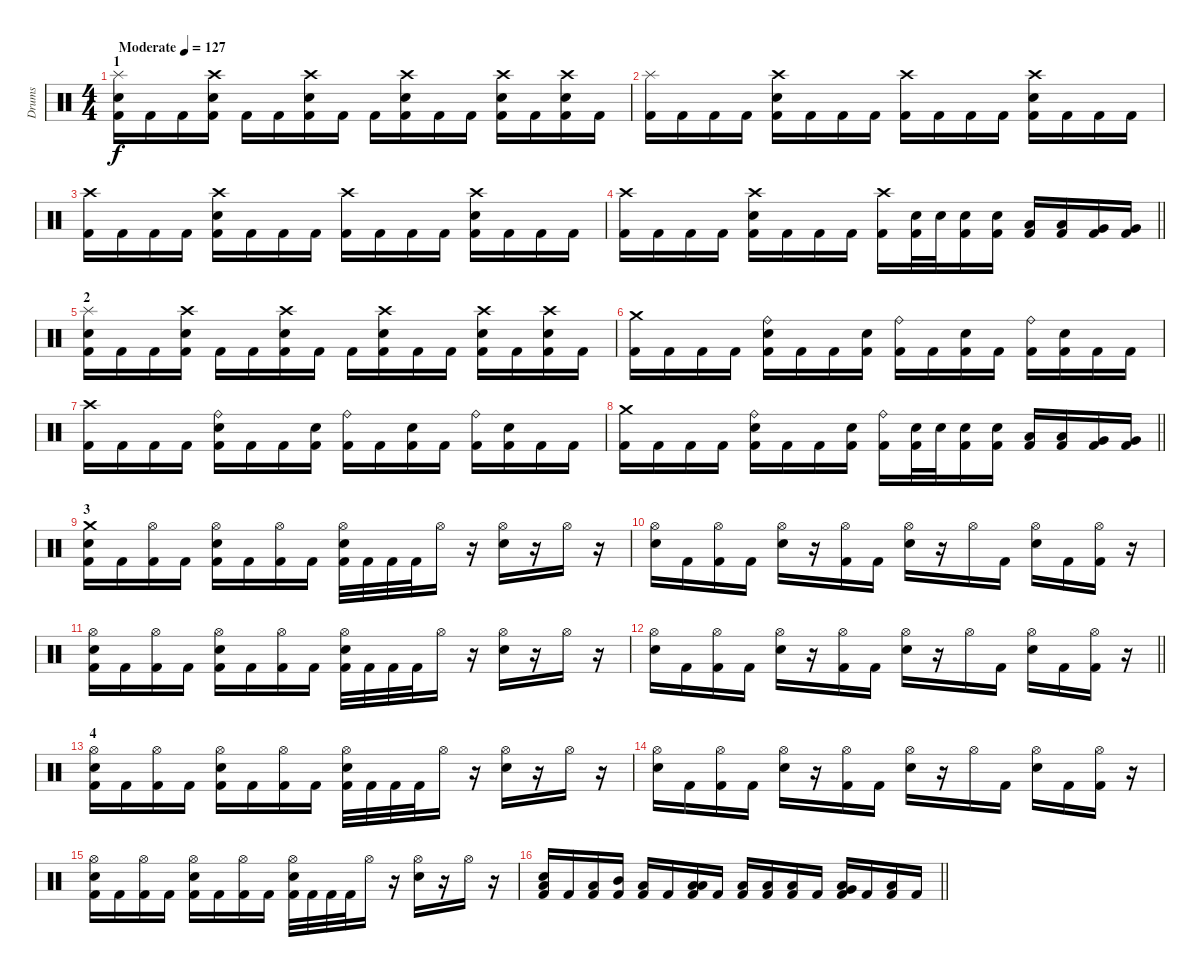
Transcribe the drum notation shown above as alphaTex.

\track ("Drums" "Drums") {instrument percussion}
\staff {score}
\articulation defaults
\ts (4 4)
\section ("" "1")
\tempo (127 "Moderate")
\clef neutral
\ks c
("Splash (hit)" "Electric Snare (hit)" "Kick (hit) 2").16{dy f} "Kick (hit) 2".16 "Kick (hit) 2".16 ("Crash high (hit)" "Electric Snare (hit)" "Kick (hit) 2").16 "Kick (hit) 2".16 "Kick (hit) 2".16 ("Crash high (hit)" "Electric Snare (hit)" "Kick (hit) 2").16 "Kick (hit) 2".16 "Kick (hit) 2".16 ("Crash high (hit)" "Electric Snare (hit)" "Kick (hit) 2").16 "Kick (hit) 2".16 "Kick (hit) 2".16 ("Crash high (hit)" "Electric Snare (hit)" "Kick (hit) 2").16 "Kick (hit) 2".16 ("Crash high (hit)" "Electric Snare (hit)" "Kick (hit) 2").16 "Kick (hit) 2".16 |
("Splash (hit)" "Kick (hit) 2").16 "Kick (hit) 2".16 "Kick (hit) 2".16 "Kick (hit) 2".16 ("Crash high (hit)" "Electric Snare (hit)" "Kick (hit) 2").16 "Kick (hit) 2".16 "Kick (hit) 2".16 "Kick (hit) 2".16 ("Crash high (hit)" "Kick (hit) 2").16 "Kick (hit) 2".16 "Kick (hit) 2".16 "Kick (hit) 2".16 ("Crash high (hit)" "Electric Snare (hit)" "Kick (hit) 2").16 "Kick (hit) 2".16 "Kick (hit) 2".16 "Kick (hit) 2".16 |
("Crash high (hit)" "Kick (hit) 2").16 "Kick (hit) 2".16 "Kick (hit) 2".16 "Kick (hit) 2".16 ("Crash high (hit)" "Electric Snare (hit)" "Kick (hit) 2").16 "Kick (hit) 2".16 "Kick (hit) 2".16 "Kick (hit) 2".16 ("Crash high (hit)" "Kick (hit) 2").16 "Kick (hit) 2".16 "Kick (hit) 2".16 "Kick (hit) 2".16 ("Crash high (hit)" "Electric Snare (hit)" "Kick (hit) 2").16 "Kick (hit) 2".16 "Kick (hit) 2".16 "Kick (hit) 2".16 |
\barLineRight lightlight
("Crash high (hit)" "Kick (hit) 2").16 "Kick (hit) 2".16 "Kick (hit) 2".16 "Kick (hit) 2".16 ("Crash high (hit)" "Electric Snare (hit)" "Kick (hit) 2").16 "Kick (hit) 2".16 "Kick (hit) 2".16 "Kick (hit) 2".16 ("Crash high (hit)" "Kick (hit) 2").16 ("Electric Snare (hit)" "Kick (hit) 2").32 "Electric Snare (hit)".32 ("Electric Snare (hit)" "Kick (hit) 2").16 ("Electric Snare (hit)" "Kick (hit) 2").16 ("Low Tom (hit)" "Kick (hit) 2").16 ("Low Tom (hit)" "Kick (hit) 2").16 ("Very Low Tom (hit)" "Kick (hit) 2").16 ("Very Low Tom (hit)" "Kick (hit) 2").16 |
\section ("" "2")
("Splash (hit)" "Electric Snare (hit)" "Kick (hit) 2").16 "Kick (hit) 2".16 "Kick (hit) 2".16 ("Crash high (hit)" "Electric Snare (hit)" "Kick (hit) 2").16 "Kick (hit) 2".16 "Kick (hit) 2".16 ("Crash high (hit)" "Electric Snare (hit)" "Kick (hit) 2").16 "Kick (hit) 2".16 "Kick (hit) 2".16 ("Crash high (hit)" "Electric Snare (hit)" "Kick (hit) 2").16 "Kick (hit) 2".16 "Kick (hit) 2".16 ("Crash high (hit)" "Electric Snare (hit)" "Kick (hit) 2").16 "Kick (hit) 2".16 ("Crash high (hit)" "Electric Snare (hit)" "Kick (hit) 2").16 "Kick (hit) 2".16 |
("Crash medium (hit)" "Kick (hit) 2").16 "Kick (hit) 2".16 "Kick (hit) 2".16 "Kick (hit) 2".16 ("Ride (bell)" "Electric Snare (hit)" "Kick (hit) 2").16 "Kick (hit) 2".16 "Kick (hit) 2".16 ("Electric Snare (hit)" "Kick (hit) 2").16 ("Ride (bell)" "Kick (hit) 2").16 "Kick (hit) 2".16 ("Electric Snare (hit)" "Kick (hit) 2").16 "Kick (hit) 2".16 ("Ride (bell)" "Kick (hit) 2").16 ("Electric Snare (hit)" "Kick (hit) 2").16 "Kick (hit) 2".16 "Kick (hit) 2".16 |
("Crash high (hit)" "Kick (hit) 2").16 "Kick (hit) 2".16 "Kick (hit) 2".16 "Kick (hit) 2".16 ("Ride (bell)" "Electric Snare (hit)" "Kick (hit) 2").16 "Kick (hit) 2".16 "Kick (hit) 2".16 ("Electric Snare (hit)" "Kick (hit) 2").16 ("Ride (bell)" "Kick (hit) 2").16 "Kick (hit) 2".16 ("Electric Snare (hit)" "Kick (hit) 2").16 "Kick (hit) 2".16 ("Ride (bell)" "Kick (hit) 2").16 ("Electric Snare (hit)" "Kick (hit) 2").16 "Kick (hit) 2".16 "Kick (hit) 2".16 |
\barLineRight lightlight
("Crash medium (hit)" "Kick (hit) 2").16 "Kick (hit) 2".16 "Kick (hit) 2".16 "Kick (hit) 2".16 ("Ride (bell)" "Electric Snare (hit)" "Kick (hit) 2").16 "Kick (hit) 2".16 "Kick (hit) 2".16 ("Electric Snare (hit)" "Kick (hit) 2").16 ("Ride (bell)" "Kick (hit) 2").16 ("Electric Snare (hit)" "Kick (hit) 2").32 "Electric Snare (hit)".32 ("Electric Snare (hit)" "Kick (hit) 2").16 ("Electric Snare (hit)" "Kick (hit) 2").16 ("Low Tom (hit)" "Kick (hit) 2").16 ("Low Tom (hit)" "Kick (hit) 2").16 ("Very Low Tom (hit)" "Kick (hit) 2").16 ("Very Low Tom (hit)" "Kick (hit) 2").16 |
\section ("" "3")
("Crash medium (hit)" "Electric Snare (hit)" "Kick (hit) 2").16 "Kick (hit) 2".16 ("Hi-Hat (open)" "Kick (hit) 2").16 "Kick (hit) 2".16 ("Hi-Hat (open)" "Electric Snare (hit)" "Kick (hit) 2").16 "Kick (hit) 2".16 ("Hi-Hat (open)" "Kick (hit) 2").16 "Kick (hit) 2".16 ("Hi-Hat (open)" "Electric Snare (hit)" "Kick (hit) 2").32 "Kick (hit) 2".32 "Kick (hit) 2".32 "Kick (hit) 2".32 "Hi-Hat (open)".16 r.16 ("Hi-Hat (open)" "Electric Snare (hit)").16 r.16 "Hi-Hat (open)".16 r.16 |
("Hi-Hat (open)" "Electric Snare (hit)").16 "Kick (hit) 2".16 ("Hi-Hat (open)" "Kick (hit) 2").16 "Kick (hit) 2".16 ("Hi-Hat (open)" "Electric Snare (hit)").16 r.16 ("Hi-Hat (open)" "Kick (hit) 2").16 "Kick (hit) 2".16 ("Hi-Hat (open)" "Electric Snare (hit)").16 r.16 "Hi-Hat (open)".16 "Kick (hit) 2".16 ("Hi-Hat (open)" "Electric Snare (hit)").16 "Kick (hit) 2".16 ("Hi-Hat (open)" "Kick (hit) 2").16 r.16 |
("Hi-Hat (open)" "Electric Snare (hit)" "Kick (hit) 2").16 "Kick (hit) 2".16 ("Hi-Hat (open)" "Kick (hit) 2").16 "Kick (hit) 2".16 ("Hi-Hat (open)" "Electric Snare (hit)" "Kick (hit) 2").16 "Kick (hit) 2".16 ("Hi-Hat (open)" "Kick (hit) 2").16 "Kick (hit) 2".16 ("Hi-Hat (open)" "Electric Snare (hit)" "Kick (hit) 2").32 "Kick (hit) 2".32 "Kick (hit) 2".32 "Kick (hit) 2".32 "Hi-Hat (open)".16 r.16 ("Hi-Hat (open)" "Electric Snare (hit)").16 r.16 "Hi-Hat (open)".16 r.16 |
\barLineRight lightlight
("Hi-Hat (open)" "Electric Snare (hit)").16 "Kick (hit) 2".16 ("Hi-Hat (open)" "Kick (hit) 2").16 "Kick (hit) 2".16 ("Hi-Hat (open)" "Electric Snare (hit)").16 r.16 ("Hi-Hat (open)" "Kick (hit) 2").16 "Kick (hit) 2".16 ("Hi-Hat (open)" "Electric Snare (hit)").16 r.16 "Hi-Hat (open)".16 "Kick (hit) 2".16 ("Hi-Hat (open)" "Electric Snare (hit)").16 "Kick (hit) 2".16 ("Hi-Hat (open)" "Kick (hit) 2").16 r.16 |
\section ("" "4")
("Hi-Hat (open)" "Electric Snare (hit)" "Kick (hit) 2").16 "Kick (hit) 2".16 ("Hi-Hat (open)" "Kick (hit) 2").16 "Kick (hit) 2".16 ("Hi-Hat (open)" "Electric Snare (hit)" "Kick (hit) 2").16 "Kick (hit) 2".16 ("Hi-Hat (open)" "Kick (hit) 2").16 "Kick (hit) 2".16 ("Hi-Hat (open)" "Electric Snare (hit)" "Kick (hit) 2").32 "Kick (hit) 2".32 "Kick (hit) 2".32 "Kick (hit) 2".32 "Hi-Hat (open)".16 r.16 ("Hi-Hat (open)" "Electric Snare (hit)").16 r.16 "Hi-Hat (open)".16 r.16 |
("Hi-Hat (open)" "Electric Snare (hit)").16 "Kick (hit) 2".16 ("Hi-Hat (open)" "Kick (hit) 2").16 "Kick (hit) 2".16 ("Hi-Hat (open)" "Electric Snare (hit)").16 r.16 ("Hi-Hat (open)" "Kick (hit) 2").16 "Kick (hit) 2".16 ("Hi-Hat (open)" "Electric Snare (hit)").16 r.16 "Hi-Hat (open)".16 "Kick (hit) 2".16 ("Hi-Hat (open)" "Electric Snare (hit)").16 "Kick (hit) 2".16 ("Hi-Hat (open)" "Kick (hit) 2").16 r.16 |
("Hi-Hat (open)" "Electric Snare (hit)" "Kick (hit) 2").16 "Kick (hit) 2".16 ("Hi-Hat (open)" "Kick (hit) 2").16 "Kick (hit) 2".16 ("Hi-Hat (open)" "Electric Snare (hit)" "Kick (hit) 2").16 "Kick (hit) 2".16 ("Hi-Hat (open)" "Kick (hit) 2").16 "Kick (hit) 2".16 ("Hi-Hat (open)" "Electric Snare (hit)" "Kick (hit) 2").32 "Kick (hit) 2".32 "Kick (hit) 2".32 "Kick (hit) 2".32 "Hi-Hat (open)".16 r.16 ("Hi-Hat (open)" "Electric Snare (hit)").16 r.16 "Hi-Hat (open)".16 r.16 |
\barLineRight lightlight
("Electric Snare (hit)" "Low Floor Tom (hit)" "Kick (hit) 2").16 "Kick (hit) 2".16 ("Low Floor Tom (hit)" "Kick (hit) 2").16 ("Mid Tom (hit)" "Kick (hit) 2").16 ("Low Floor Tom (hit)" "Kick (hit) 2").16 "Kick (hit) 2".16 ("Low Tom (hit)" "Low Floor Tom (hit)" "Kick (hit) 2").16 "Kick (hit) 2".16 ("Low Floor Tom (hit)" "Kick (hit) 2").16 ("Low Tom (hit)" "Kick (hit) 2").16 ("Low Floor Tom (hit)" "Kick (hit) 2").16 "Kick (hit) 2".16 ("Very Low Tom (hit)" "Low Floor Tom (hit)" "Kick (hit) 2").16 "Kick (hit) 2".16 ("Low Floor Tom (hit)" "Kick (hit) 2").16 "Kick (hit) 2".16
